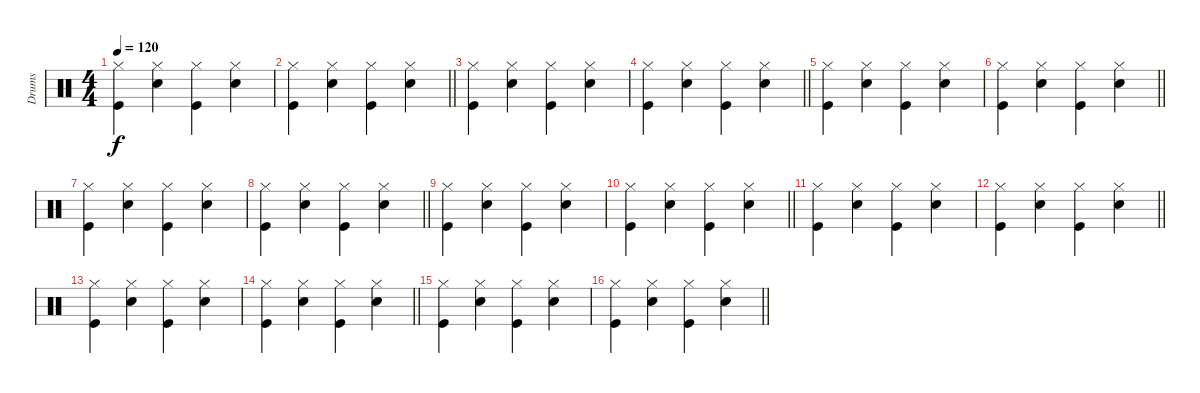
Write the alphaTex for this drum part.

\track ("Drums" "Drums") {instrument percussion}
\staff {score}
\articulation defaults
\ts (4 4)
\tempo 120
\clef neutral
\ks c
("Hi-Hat (closed)" "Kick (hit)").4{dy f} ("Hi-Hat (closed)" "Snare (hit) 2").4 ("Hi-Hat (closed)" "Kick (hit)").4 ("Hi-Hat (closed)" "Snare (hit) 2").4 |
\barLineRight lightlight
("Hi-Hat (closed)" "Kick (hit)").4 ("Hi-Hat (closed)" "Snare (hit) 2").4 ("Hi-Hat (closed)" "Kick (hit)").4 ("Hi-Hat (closed)" "Snare (hit) 2").4 |
("Hi-Hat (closed)" "Kick (hit)").4 ("Hi-Hat (closed)" "Snare (hit) 2").4 ("Hi-Hat (closed)" "Kick (hit)").4 ("Hi-Hat (closed)" "Snare (hit) 2").4 |
\barLineRight lightlight
("Hi-Hat (closed)" "Kick (hit)").4 ("Hi-Hat (closed)" "Snare (hit) 2").4 ("Hi-Hat (closed)" "Kick (hit)").4 ("Hi-Hat (closed)" "Snare (hit) 2").4 |
("Hi-Hat (closed)" "Kick (hit)").4 ("Hi-Hat (closed)" "Snare (hit) 2").4 ("Hi-Hat (closed)" "Kick (hit)").4 ("Hi-Hat (closed)" "Snare (hit) 2").4 |
\barLineRight lightlight
("Hi-Hat (closed)" "Kick (hit)").4 ("Hi-Hat (closed)" "Snare (hit) 2").4 ("Hi-Hat (closed)" "Kick (hit)").4 ("Hi-Hat (closed)" "Snare (hit) 2").4 |
("Hi-Hat (closed)" "Kick (hit)").4 ("Hi-Hat (closed)" "Snare (hit) 2").4 ("Hi-Hat (closed)" "Kick (hit)").4 ("Hi-Hat (closed)" "Snare (hit) 2").4 |
\barLineRight lightlight
("Hi-Hat (closed)" "Kick (hit)").4 ("Hi-Hat (closed)" "Snare (hit) 2").4 ("Hi-Hat (closed)" "Kick (hit)").4 ("Hi-Hat (closed)" "Snare (hit) 2").4 |
("Hi-Hat (closed)" "Kick (hit)").4 ("Hi-Hat (closed)" "Snare (hit) 2").4 ("Hi-Hat (closed)" "Kick (hit)").4 ("Hi-Hat (closed)" "Snare (hit) 2").4 |
\barLineRight lightlight
("Hi-Hat (closed)" "Kick (hit)").4 ("Hi-Hat (closed)" "Snare (hit) 2").4 ("Hi-Hat (closed)" "Kick (hit)").4 ("Hi-Hat (closed)" "Snare (hit) 2").4 |
("Hi-Hat (closed)" "Kick (hit)").4 ("Hi-Hat (closed)" "Snare (hit) 2").4 ("Hi-Hat (closed)" "Kick (hit)").4 ("Hi-Hat (closed)" "Snare (hit) 2").4 |
\barLineRight lightlight
("Hi-Hat (closed)" "Kick (hit)").4 ("Hi-Hat (closed)" "Snare (hit) 2").4 ("Hi-Hat (closed)" "Kick (hit)").4 ("Hi-Hat (closed)" "Snare (hit) 2").4 |
("Hi-Hat (closed)" "Kick (hit)").4 ("Hi-Hat (closed)" "Snare (hit) 2").4 ("Hi-Hat (closed)" "Kick (hit)").4 ("Hi-Hat (closed)" "Snare (hit) 2").4 |
\barLineRight lightlight
("Hi-Hat (closed)" "Kick (hit)").4 ("Hi-Hat (closed)" "Snare (hit) 2").4 ("Hi-Hat (closed)" "Kick (hit)").4 ("Hi-Hat (closed)" "Snare (hit) 2").4 |
("Hi-Hat (closed)" "Kick (hit)").4 ("Hi-Hat (closed)" "Snare (hit) 2").4 ("Hi-Hat (closed)" "Kick (hit)").4 ("Hi-Hat (closed)" "Snare (hit) 2").4 |
\barLineRight lightlight
("Hi-Hat (closed)" "Kick (hit)").4 ("Hi-Hat (closed)" "Snare (hit) 2").4 ("Hi-Hat (closed)" "Kick (hit)").4 ("Hi-Hat (closed)" "Snare (hit) 2").4
